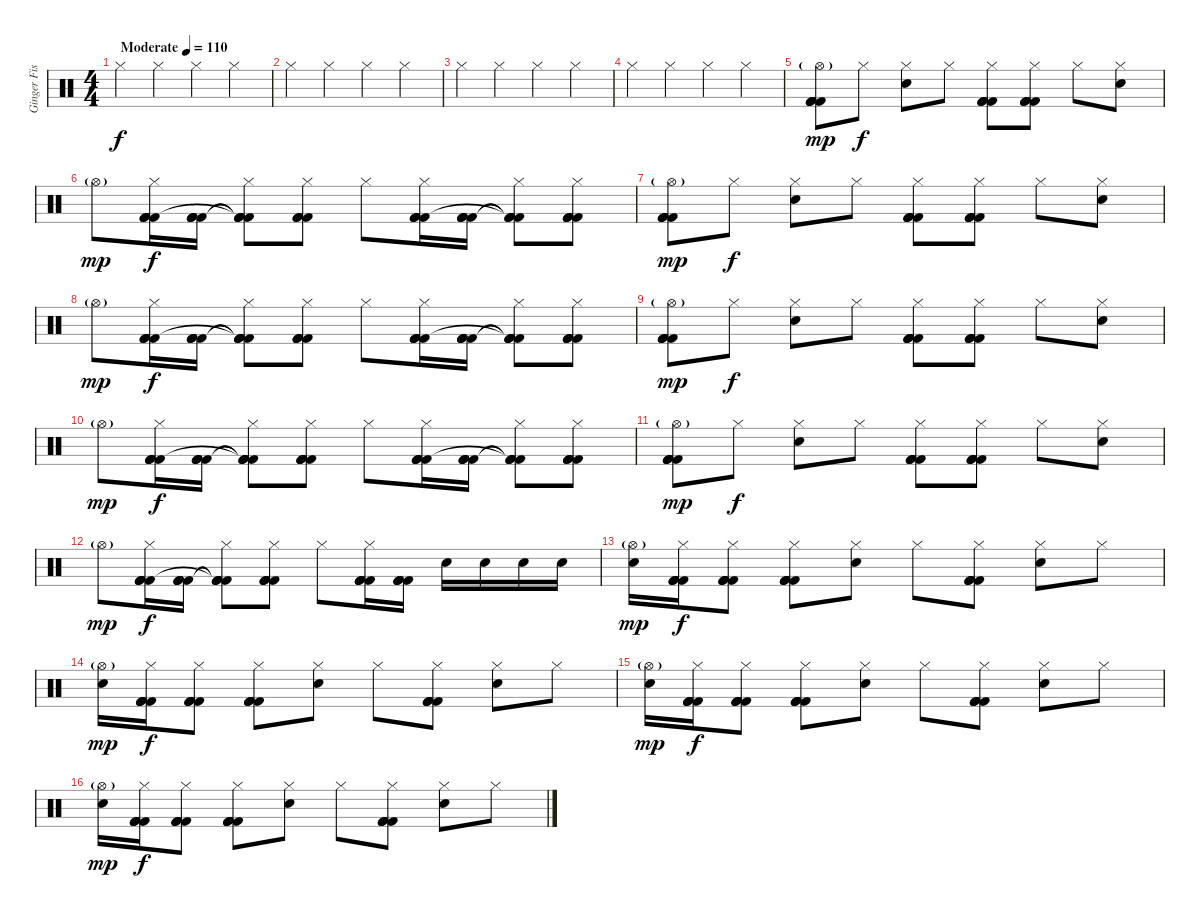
\track ("Ginger Fish" "Ginger Fis") {instrument percussion}
\staff {score}
\articulation defaults
\ts (4 4)
\tempo (110 "Moderate")
\clef neutral
\ks c "Hi-Hat (closed)".4{dy f} "Hi-Hat (closed)".4 "Hi-Hat (closed)".4 "Hi-Hat (closed)".4
|
"Hi-Hat (closed)".4 "Hi-Hat (closed)".4 "Hi-Hat (closed)".4 "Hi-Hat (closed)".4 |
"Hi-Hat (closed)".4 "Hi-Hat (closed)".4 "Hi-Hat (closed)".4 "Hi-Hat (closed)".4 |
"Hi-Hat (closed)".4 "Hi-Hat (closed)".4 "Hi-Hat (closed)".4 "Hi-Hat (closed)".4 |
("Hi-Hat (open)"{g} "Kick (hit) 2" "Kick (hit) 2" "Kick (hit) 2" "Kick (hit) 2").8{dy mp} "Hi-Hat (closed)".8{dy f} ("Hi-Hat (closed)" "Electric Snare (hit)").8 "Hi-Hat (closed)".8 ("Hi-Hat (closed)" "Kick (hit) 2" "Kick (hit) 2" "Kick (hit) 2" "Kick (hit) 2").8 ("Hi-Hat (closed)" "Kick (hit) 2" "Kick (hit) 2" "Kick (hit) 2" "Kick (hit) 2").8 "Hi-Hat (closed)".8 ("Hi-Hat (closed)" "Electric Snare (hit)").8 |
"Hi-Hat (open)"{g}.8{dy mp} ("Hi-Hat (closed)" "Kick (hit) 2" "Kick (hit) 2" "Kick (hit) 2" "Kick (hit) 2").16{dy f} ("Kick (hit) 2" "Kick (hit) 2" "Kick (hit) 2" "Kick (hit) 2").16 ("Hi-Hat (closed)" "Kick (hit) 2"{t} "Kick (hit) 2"{t} "Kick (hit) 2"{t} "Kick (hit) 2"{t}).8 ("Hi-Hat (closed)" "Kick (hit) 2" "Kick (hit) 2" "Kick (hit) 2" "Kick (hit) 2").8 "Hi-Hat (closed)".8 ("Hi-Hat (closed)" "Kick (hit) 2" "Kick (hit) 2" "Kick (hit) 2" "Kick (hit) 2").16 ("Kick (hit) 2" "Kick (hit) 2" "Kick (hit) 2" "Kick (hit) 2").16 ("Hi-Hat (closed)" "Kick (hit) 2"{t} "Kick (hit) 2"{t} "Kick (hit) 2"{t} "Kick (hit) 2"{t}).8 ("Hi-Hat (closed)" "Kick (hit) 2" "Kick (hit) 2" "Kick (hit) 2" "Kick (hit) 2").8 |
("Hi-Hat (open)"{g} "Kick (hit) 2" "Kick (hit) 2" "Kick (hit) 2" "Kick (hit) 2").8{dy mp} "Hi-Hat (closed)".8{dy f} ("Hi-Hat (closed)" "Electric Snare (hit)").8 "Hi-Hat (closed)".8 ("Hi-Hat (closed)" "Kick (hit) 2" "Kick (hit) 2" "Kick (hit) 2" "Kick (hit) 2").8 ("Hi-Hat (closed)" "Kick (hit) 2" "Kick (hit) 2" "Kick (hit) 2" "Kick (hit) 2").8 "Hi-Hat (closed)".8 ("Hi-Hat (closed)" "Electric Snare (hit)").8 |
"Hi-Hat (open)"{g}.8{dy mp} ("Hi-Hat (closed)" "Kick (hit) 2" "Kick (hit) 2" "Kick (hit) 2" "Kick (hit) 2").16{dy f} ("Kick (hit) 2" "Kick (hit) 2" "Kick (hit) 2" "Kick (hit) 2").16 ("Hi-Hat (closed)" "Kick (hit) 2"{t} "Kick (hit) 2"{t} "Kick (hit) 2"{t} "Kick (hit) 2"{t}).8 ("Hi-Hat (closed)" "Kick (hit) 2" "Kick (hit) 2" "Kick (hit) 2" "Kick (hit) 2").8 "Hi-Hat (closed)".8 ("Hi-Hat (closed)" "Kick (hit) 2" "Kick (hit) 2" "Kick (hit) 2" "Kick (hit) 2").16 ("Kick (hit) 2" "Kick (hit) 2" "Kick (hit) 2" "Kick (hit) 2").16 ("Hi-Hat (closed)" "Kick (hit) 2"{t} "Kick (hit) 2"{t} "Kick (hit) 2"{t} "Kick (hit) 2"{t}).8 ("Hi-Hat (closed)" "Kick (hit) 2" "Kick (hit) 2" "Kick (hit) 2" "Kick (hit) 2").8 |
("Hi-Hat (open)"{g} "Kick (hit) 2" "Kick (hit) 2" "Kick (hit) 2" "Kick (hit) 2").8{dy mp} "Hi-Hat (closed)".8{dy f} ("Hi-Hat (closed)" "Electric Snare (hit)").8 "Hi-Hat (closed)".8 ("Hi-Hat (closed)" "Kick (hit) 2" "Kick (hit) 2" "Kick (hit) 2" "Kick (hit) 2").8 ("Hi-Hat (closed)" "Kick (hit) 2" "Kick (hit) 2" "Kick (hit) 2" "Kick (hit) 2").8 "Hi-Hat (closed)".8 ("Hi-Hat (closed)" "Electric Snare (hit)").8 |
"Hi-Hat (open)"{g}.8{dy mp} ("Hi-Hat (closed)" "Kick (hit) 2" "Kick (hit) 2" "Kick (hit) 2" "Kick (hit) 2").16{dy f} ("Kick (hit) 2" "Kick (hit) 2" "Kick (hit) 2" "Kick (hit) 2").16 ("Hi-Hat (closed)" "Kick (hit) 2"{t} "Kick (hit) 2"{t} "Kick (hit) 2"{t} "Kick (hit) 2"{t}).8 ("Hi-Hat (closed)" "Kick (hit) 2" "Kick (hit) 2" "Kick (hit) 2" "Kick (hit) 2").8 "Hi-Hat (closed)".8 ("Hi-Hat (closed)" "Kick (hit) 2" "Kick (hit) 2" "Kick (hit) 2" "Kick (hit) 2").16 ("Kick (hit) 2" "Kick (hit) 2" "Kick (hit) 2" "Kick (hit) 2").16 ("Hi-Hat (closed)" "Kick (hit) 2"{t} "Kick (hit) 2"{t} "Kick (hit) 2"{t} "Kick (hit) 2"{t}).8 ("Hi-Hat (closed)" "Kick (hit) 2" "Kick (hit) 2" "Kick (hit) 2" "Kick (hit) 2").8 |
("Hi-Hat (open)"{g} "Kick (hit) 2" "Kick (hit) 2" "Kick (hit) 2" "Kick (hit) 2").8{dy mp} "Hi-Hat (closed)".8{dy f} ("Hi-Hat (closed)" "Electric Snare (hit)").8 "Hi-Hat (closed)".8 ("Hi-Hat (closed)" "Kick (hit) 2" "Kick (hit) 2" "Kick (hit) 2" "Kick (hit) 2").8 ("Hi-Hat (closed)" "Kick (hit) 2" "Kick (hit) 2" "Kick (hit) 2" "Kick (hit) 2").8 "Hi-Hat (closed)".8 ("Hi-Hat (closed)" "Electric Snare (hit)").8 |
"Hi-Hat (open)"{g}.8{dy mp} ("Hi-Hat (closed)" "Kick (hit) 2" "Kick (hit) 2" "Kick (hit) 2" "Kick (hit) 2").16{dy f} ("Kick (hit) 2" "Kick (hit) 2" "Kick (hit) 2" "Kick (hit) 2").16 ("Hi-Hat (closed)" "Kick (hit) 2"{t} "Kick (hit) 2"{t} "Kick (hit) 2"{t} "Kick (hit) 2"{t}).8 ("Hi-Hat (closed)" "Kick (hit) 2" "Kick (hit) 2" "Kick (hit) 2" "Kick (hit) 2").8 "Hi-Hat (closed)".8 ("Hi-Hat (closed)" "Kick (hit) 2" "Kick (hit) 2" "Kick (hit) 2" "Kick (hit) 2").16 ("Kick (hit) 2" "Kick (hit) 2" "Kick (hit) 2" "Kick (hit) 2").16 "Snare (hit) 2".16 "Snare (hit) 2".16 "Snare (hit) 2".16 "Snare (hit) 2".16 |
("Hi-Hat (open)"{g} "Electric Snare (hit)").16{dy mp} ("Hi-Hat (closed)" "Kick (hit) 2" "Kick (hit) 2" "Kick (hit) 2" "Kick (hit) 2").16{dy f} ("Hi-Hat (closed)" "Kick (hit) 2" "Kick (hit) 2" "Kick (hit) 2" "Kick (hit) 2").8 ("Hi-Hat (closed)" "Kick (hit) 2" "Kick (hit) 2" "Kick (hit) 2" "Kick (hit) 2").8 ("Hi-Hat (closed)" "Electric Snare (hit)").8 "Hi-Hat (closed)".8 ("Hi-Hat (closed)" "Kick (hit) 2" "Kick (hit) 2" "Kick (hit) 2" "Kick (hit) 2").8 ("Hi-Hat (closed)" "Electric Snare (hit)").8 "Hi-Hat (closed)".8 |
("Hi-Hat (open)"{g} "Electric Snare (hit)").16{dy mp} ("Hi-Hat (closed)" "Kick (hit) 2" "Kick (hit) 2" "Kick (hit) 2" "Kick (hit) 2").16{dy f} ("Hi-Hat (closed)" "Kick (hit) 2" "Kick (hit) 2" "Kick (hit) 2" "Kick (hit) 2").8 ("Hi-Hat (closed)" "Kick (hit) 2" "Kick (hit) 2" "Kick (hit) 2" "Kick (hit) 2").8 ("Hi-Hat (closed)" "Electric Snare (hit)").8 "Hi-Hat (closed)".8 ("Hi-Hat (closed)" "Kick (hit) 2" "Kick (hit) 2" "Kick (hit) 2" "Kick (hit) 2").8 ("Hi-Hat (closed)" "Electric Snare (hit)").8 "Hi-Hat (closed)".8 |
("Hi-Hat (open)"{g} "Electric Snare (hit)").16{dy mp} ("Hi-Hat (closed)" "Kick (hit) 2" "Kick (hit) 2" "Kick (hit) 2" "Kick (hit) 2").16{dy f} ("Hi-Hat (closed)" "Kick (hit) 2" "Kick (hit) 2" "Kick (hit) 2" "Kick (hit) 2").8 ("Hi-Hat (closed)" "Kick (hit) 2" "Kick (hit) 2" "Kick (hit) 2" "Kick (hit) 2").8 ("Hi-Hat (closed)" "Electric Snare (hit)").8 "Hi-Hat (closed)".8 ("Hi-Hat (closed)" "Kick (hit) 2" "Kick (hit) 2" "Kick (hit) 2" "Kick (hit) 2").8 ("Hi-Hat (closed)" "Electric Snare (hit)").8 "Hi-Hat (closed)".8 |
("Hi-Hat (open)"{g} "Electric Snare (hit)").16{dy mp} ("Hi-Hat (closed)" "Kick (hit) 2" "Kick (hit) 2" "Kick (hit) 2" "Kick (hit) 2").16{dy f} ("Hi-Hat (closed)" "Kick (hit) 2" "Kick (hit) 2" "Kick (hit) 2" "Kick (hit) 2").8 ("Hi-Hat (closed)" "Kick (hit) 2" "Kick (hit) 2" "Kick (hit) 2" "Kick (hit) 2").8 ("Hi-Hat (closed)" "Electric Snare (hit)").8 "Hi-Hat (closed)".8 ("Hi-Hat (closed)" "Kick (hit) 2" "Kick (hit) 2" "Kick (hit) 2" "Kick (hit) 2").8 ("Hi-Hat (closed)" "Electric Snare (hit)").8 "Hi-Hat (closed)".8
